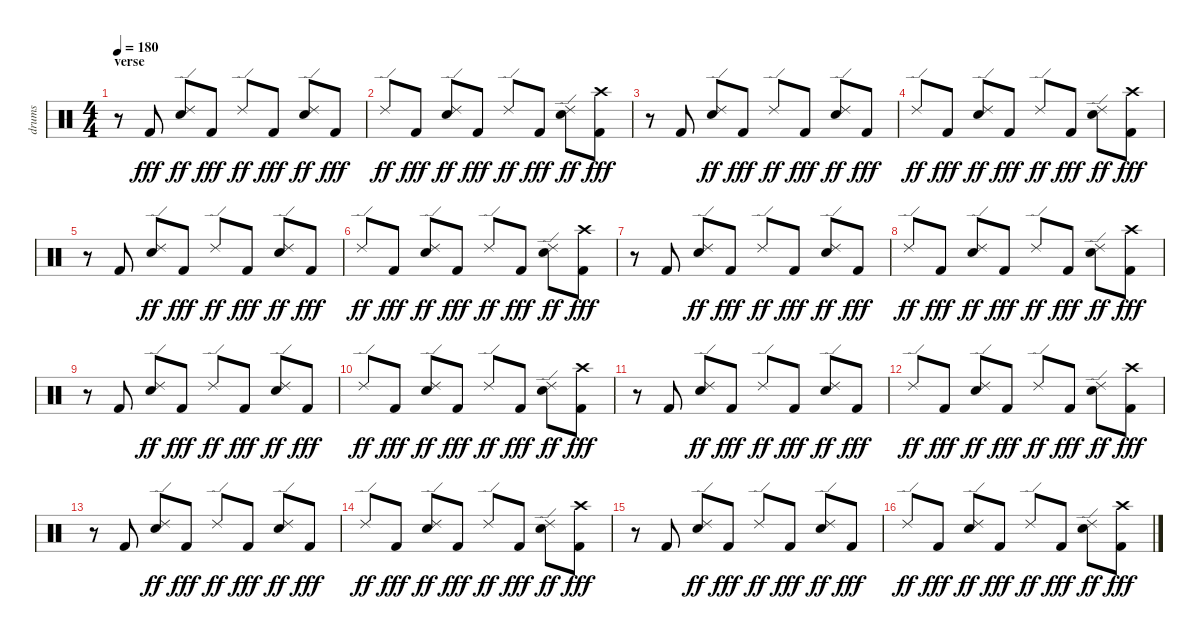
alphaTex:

\track ("drums" "drums") {instrument percussion}
\staff {score}
\articulation defaults
\ts (4 4)
\section ("" "verse")
\tempo 180
\clef neutral
\ks c
r.8{dy fff} "Kick (hit) 2".8 ("Ride (edge) 2" "Snare (hit) 2").8{dy ff} "Kick (hit) 2".8{dy fff} "Ride (edge) 2".8{dy ff} "Kick (hit) 2".8{dy fff} ("Ride (edge) 2" "Snare (hit) 2").8{dy ff} "Kick (hit) 2".8{dy fff} |
"Ride (edge) 2".8{dy ff} "Kick (hit) 2".8{dy fff} ("Ride (edge) 2" "Snare (hit) 2").8{dy ff} "Kick (hit) 2".8{dy fff} "Ride (edge) 2".8{dy ff} "Kick (hit) 2".8{dy fff} ("Ride (edge) 2" "Snare (hit) 2").8{dy ff} ("Crash high (hit)" "Kick (hit) 2").8{dy fff} |
r.8 "Kick (hit) 2".8 ("Ride (edge) 2" "Snare (hit) 2").8{dy ff} "Kick (hit) 2".8{dy fff} "Ride (edge) 2".8{dy ff} "Kick (hit) 2".8{dy fff} ("Ride (edge) 2" "Snare (hit) 2").8{dy ff} "Kick (hit) 2".8{dy fff} |
"Ride (edge) 2".8{dy ff} "Kick (hit) 2".8{dy fff} ("Ride (edge) 2" "Snare (hit) 2").8{dy ff} "Kick (hit) 2".8{dy fff} "Ride (edge) 2".8{dy ff} "Kick (hit) 2".8{dy fff} ("Ride (edge) 2" "Snare (hit) 2").8{dy ff} ("Crash high (hit)" "Kick (hit) 2").8{dy fff} |
r.8 "Kick (hit) 2".8 ("Ride (edge) 2" "Snare (hit) 2").8{dy ff} "Kick (hit) 2".8{dy fff} "Ride (edge) 2".8{dy ff} "Kick (hit) 2".8{dy fff} ("Ride (edge) 2" "Snare (hit) 2").8{dy ff} "Kick (hit) 2".8{dy fff} |
"Ride (edge) 2".8{dy ff} "Kick (hit) 2".8{dy fff} ("Ride (edge) 2" "Snare (hit) 2").8{dy ff} "Kick (hit) 2".8{dy fff} "Ride (edge) 2".8{dy ff} "Kick (hit) 2".8{dy fff} ("Ride (edge) 2" "Snare (hit) 2").8{dy ff} ("Crash high (hit)" "Kick (hit) 2").8{dy fff} |
r.8 "Kick (hit) 2".8 ("Ride (edge) 2" "Snare (hit) 2").8{dy ff} "Kick (hit) 2".8{dy fff} "Ride (edge) 2".8{dy ff} "Kick (hit) 2".8{dy fff} ("Ride (edge) 2" "Snare (hit) 2").8{dy ff} "Kick (hit) 2".8{dy fff} |
"Ride (edge) 2".8{dy ff} "Kick (hit) 2".8{dy fff} ("Ride (edge) 2" "Snare (hit) 2").8{dy ff} "Kick (hit) 2".8{dy fff} "Ride (edge) 2".8{dy ff} "Kick (hit) 2".8{dy fff} ("Ride (edge) 2" "Snare (hit) 2").8{dy ff} ("Crash high (hit)" "Kick (hit) 2").8{dy fff} |
r.8 "Kick (hit) 2".8 ("Ride (edge) 2" "Snare (hit) 2").8{dy ff} "Kick (hit) 2".8{dy fff} "Ride (edge) 2".8{dy ff} "Kick (hit) 2".8{dy fff} ("Ride (edge) 2" "Snare (hit) 2").8{dy ff} "Kick (hit) 2".8{dy fff} |
"Ride (edge) 2".8{dy ff} "Kick (hit) 2".8{dy fff} ("Ride (edge) 2" "Snare (hit) 2").8{dy ff} "Kick (hit) 2".8{dy fff} "Ride (edge) 2".8{dy ff} "Kick (hit) 2".8{dy fff} ("Ride (edge) 2" "Snare (hit) 2").8{dy ff} ("Crash high (hit)" "Kick (hit) 2").8{dy fff} |
r.8 "Kick (hit) 2".8 ("Ride (edge) 2" "Snare (hit) 2").8{dy ff} "Kick (hit) 2".8{dy fff} "Ride (edge) 2".8{dy ff} "Kick (hit) 2".8{dy fff} ("Ride (edge) 2" "Snare (hit) 2").8{dy ff} "Kick (hit) 2".8{dy fff} |
"Ride (edge) 2".8{dy ff} "Kick (hit) 2".8{dy fff} ("Ride (edge) 2" "Snare (hit) 2").8{dy ff} "Kick (hit) 2".8{dy fff} "Ride (edge) 2".8{dy ff} "Kick (hit) 2".8{dy fff} ("Ride (edge) 2" "Snare (hit) 2").8{dy ff} ("Crash high (hit)" "Kick (hit) 2").8{dy fff} |
r.8 "Kick (hit) 2".8 ("Ride (edge) 2" "Snare (hit) 2").8{dy ff} "Kick (hit) 2".8{dy fff} "Ride (edge) 2".8{dy ff} "Kick (hit) 2".8{dy fff} ("Ride (edge) 2" "Snare (hit) 2").8{dy ff} "Kick (hit) 2".8{dy fff} |
"Ride (edge) 2".8{dy ff} "Kick (hit) 2".8{dy fff} ("Ride (edge) 2" "Snare (hit) 2").8{dy ff} "Kick (hit) 2".8{dy fff} "Ride (edge) 2".8{dy ff} "Kick (hit) 2".8{dy fff} ("Ride (edge) 2" "Snare (hit) 2").8{dy ff} ("Crash high (hit)" "Kick (hit) 2").8{dy fff} |
r.8 "Kick (hit) 2".8 ("Ride (edge) 2" "Snare (hit) 2").8{dy ff} "Kick (hit) 2".8{dy fff} "Ride (edge) 2".8{dy ff} "Kick (hit) 2".8{dy fff} ("Ride (edge) 2" "Snare (hit) 2").8{dy ff} "Kick (hit) 2".8{dy fff} |
"Ride (edge) 2".8{dy ff} "Kick (hit) 2".8{dy fff} ("Ride (edge) 2" "Snare (hit) 2").8{dy ff} "Kick (hit) 2".8{dy fff} "Ride (edge) 2".8{dy ff} "Kick (hit) 2".8{dy fff} ("Ride (edge) 2" "Snare (hit) 2").8{dy ff} ("Crash high (hit)" "Kick (hit) 2").8{dy fff}
